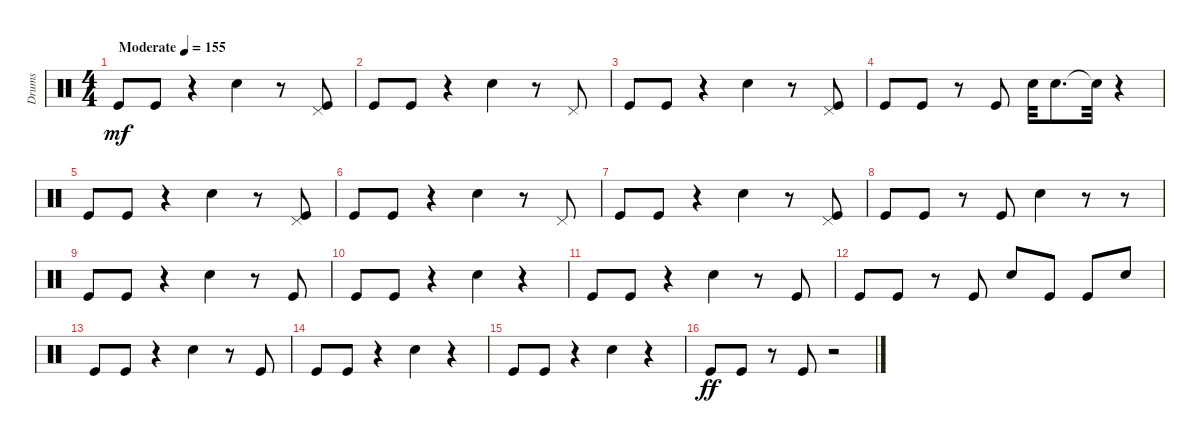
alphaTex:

\track ("Drums" "Drums") {instrument percussion}
\staff {score}
\articulation defaults
\ts (4 4)
\tempo (155 "Moderate")
\clef neutral
\ks c "Kick (hit)".8{dy mf} "Kick (hit)".8
r.4 "Snare (hit) 2".4 r.8 ("Kick (hit)" "Pedal Hi-Hat (hit)").8 |
"Kick (hit)".8 "Kick (hit)".8 r.4 "Snare (hit) 2".4 r.8 "Pedal Hi-Hat (hit)".8 |
"Kick (hit)".8 "Kick (hit)".8 r.4 "Snare (hit) 2".4 r.8 ("Kick (hit)" "Pedal Hi-Hat (hit)").8 |
"Kick (hit)".8 "Kick (hit)".8 r.8 "Kick (hit)".8 "Snare (hit) 2".32 "Snare (hit) 2".8{d} "Snare (hit) 2"{t}.32 r.4 |
"Kick (hit)".8 "Kick (hit)".8 r.4 "Snare (hit) 2".4 r.8 ("Kick (hit)" "Pedal Hi-Hat (hit)").8 |
"Kick (hit)".8 "Kick (hit)".8 r.4 "Snare (hit) 2".4 r.8 "Pedal Hi-Hat (hit)".8 |
"Kick (hit)".8 "Kick (hit)".8 r.4 "Snare (hit) 2".4 r.8 ("Kick (hit)" "Pedal Hi-Hat (hit)").8 |
"Kick (hit)".8 "Kick (hit)".8 r.8 "Kick (hit)".8 "Snare (hit) 2".4 r.8 r.8 |
"Kick (hit)".8 "Kick (hit)".8 r.4 "Snare (hit) 2".4 r.8 "Kick (hit)".8 |
"Kick (hit)".8 "Kick (hit)".8 r.4 "Snare (hit) 2".4 r.4 |
"Kick (hit)".8 "Kick (hit)".8 r.4 "Snare (hit) 2".4 r.8 "Kick (hit)".8 |
"Kick (hit)".8 "Kick (hit)".8 r.8 "Kick (hit)".8 "Snare (hit) 2".8 "Kick (hit)".8 "Kick (hit)".8 "Snare (hit) 2".8 |
"Kick (hit)".8 "Kick (hit)".8 r.4 "Snare (hit) 2".4 r.8 "Kick (hit)".8 |
"Kick (hit)".8 "Kick (hit)".8 r.4 "Snare (hit) 2".4 r.4 |
"Kick (hit)".8 "Kick (hit)".8 r.4 "Snare (hit) 2".4 r.4 |
"Kick (hit)".8{dy ff} "Kick (hit)".8 r.8 "Kick (hit)".8 r.2
